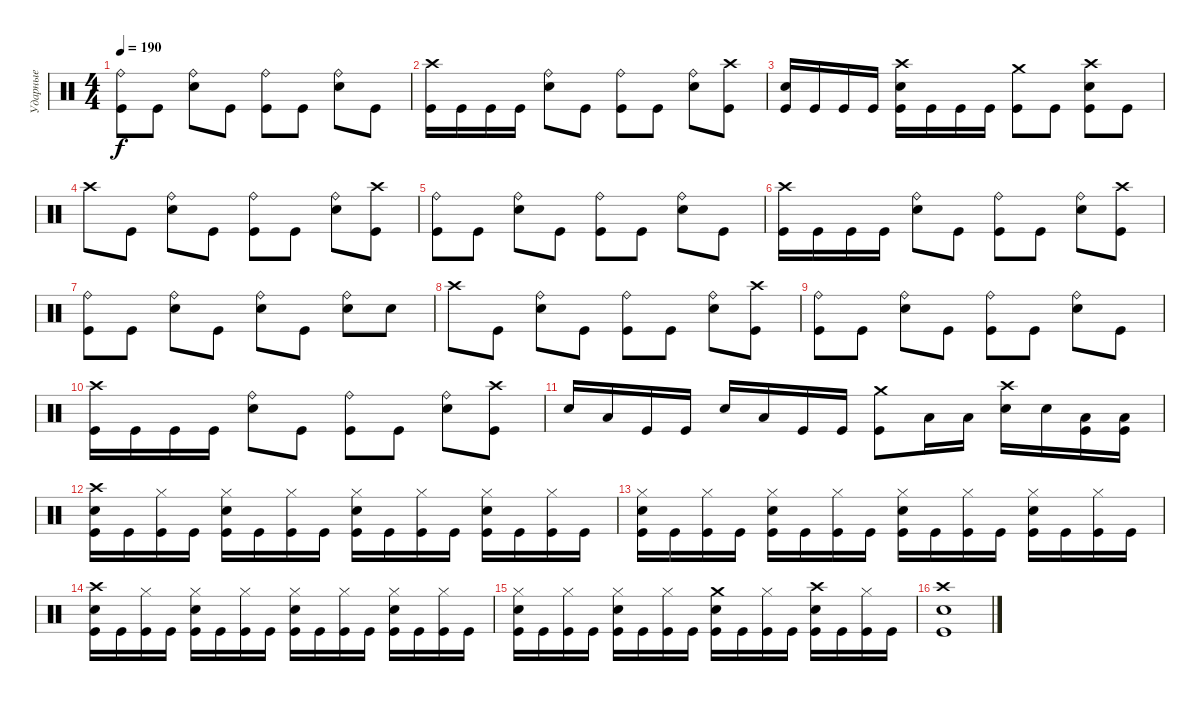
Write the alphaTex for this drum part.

\track ("Ударные" "Ударные") {instrument percussion}
\staff {score}
\articulation defaults
\ts (4 4)
\tempo 190
\clef neutral
\ks c
("Ride (bell)" "Kick (hit)").8{dy f} "Kick (hit)".8 ("Ride (bell)" "Electric Snare (hit)").8 "Kick (hit)".8 ("Ride (bell)" "Kick (hit)").8 "Kick (hit)".8 ("Ride (bell)" "Electric Snare (hit)").8 "Kick (hit)".8 |
("Crash high (hit)" "Kick (hit)").16 "Kick (hit)".16 "Kick (hit)".16 "Kick (hit)".16 ("Ride (bell)" "Electric Snare (hit)").8 "Kick (hit)".8 ("Ride (bell)" "Kick (hit)").8 "Kick (hit)".8 ("Ride (bell)" "Electric Snare (hit)").8 ("Crash high (hit)" "Kick (hit)").8 |
("Electric Snare (hit)" "Kick (hit)").16 "Kick (hit)".16 "Kick (hit)".16 "Kick (hit)".16 ("Crash high (hit)" "Electric Snare (hit)" "Kick (hit)").16 "Kick (hit)".16 "Kick (hit)".16 "Kick (hit)".16 ("Crash medium (hit)" "Kick (hit)").8 "Kick (hit)".8 ("Crash high (hit)" "Electric Snare (hit)" "Kick (hit)").8 "Kick (hit)".8 |
"Crash high (hit)".8 "Kick (hit)".8 ("Ride (bell)" "Electric Snare (hit)").8 "Kick (hit)".8 ("Ride (bell)" "Kick (hit)").8 "Kick (hit)".8 ("Ride (bell)" "Electric Snare (hit)").8 ("Crash high (hit)" "Kick (hit)").8 |
("Ride (bell)" "Kick (hit)").8 "Kick (hit)".8 ("Ride (bell)" "Electric Snare (hit)").8 "Kick (hit)".8 ("Ride (bell)" "Kick (hit)").8 "Kick (hit)".8 ("Ride (bell)" "Electric Snare (hit)").8 "Kick (hit)".8 |
("Crash high (hit)" "Kick (hit)").16 "Kick (hit)".16 "Kick (hit)".16 "Kick (hit)".16 ("Ride (bell)" "Electric Snare (hit)").8 "Kick (hit)".8 ("Ride (bell)" "Kick (hit)").8 "Kick (hit)".8 ("Ride (bell)" "Electric Snare (hit)").8 ("Crash high (hit)" "Kick (hit)").8 |
("Ride (bell)" "Kick (hit)").8 "Kick (hit)".8 ("Ride (bell)" "Electric Snare (hit)").8 "Kick (hit)".8 ("Ride (bell)" "Electric Snare (hit)").8 "Kick (hit)".8 ("Ride (bell)" "Electric Snare (hit)").8 "Electric Snare (hit)".8 |
"Crash high (hit)".8 "Kick (hit)".8 ("Ride (bell)" "Electric Snare (hit)").8 "Kick (hit)".8 ("Ride (bell)" "Kick (hit)").8 "Kick (hit)".8 ("Ride (bell)" "Electric Snare (hit)").8 ("Crash high (hit)" "Kick (hit)").8 |
("Ride (bell)" "Kick (hit)").8 "Kick (hit)".8 ("Ride (bell)" "Electric Snare (hit)").8 "Kick (hit)".8 ("Ride (bell)" "Kick (hit)").8 "Kick (hit)".8 ("Ride (bell)" "Electric Snare (hit)").8 "Kick (hit)".8 |
("Crash high (hit)" "Kick (hit)").16 "Kick (hit)".16 "Kick (hit)".16 "Kick (hit)".16 ("Ride (bell)" "Electric Snare (hit)").8 "Kick (hit)".8 ("Ride (bell)" "Kick (hit)").8 "Kick (hit)".8 ("Ride (bell)" "Electric Snare (hit)").8 ("Crash high (hit)" "Kick (hit)").8 |
"Electric Snare (hit)".16 "Low Tom (hit)".16 "Kick (hit)".16 "Kick (hit)".16 "Electric Snare (hit)".16 "Low Tom (hit)".16 "Kick (hit)".16 "Kick (hit)".16 ("Crash medium (hit)" "Kick (hit)").8 "Low Tom (hit)".16 "Low Tom (hit)".16 ("Crash high (hit)" "Electric Snare (hit)").16 "Electric Snare (hit)".16 ("Low Tom (hit)" "Kick (hit)").16 ("Low Tom (hit)" "Kick (hit)").16 |
("Crash high (hit)" "Electric Snare (hit)" "Kick (hit)").16 "Kick (hit)".16 ("Hi-Hat (closed)" "Kick (hit)").16 "Kick (hit)".16 ("Hi-Hat (closed)" "Electric Snare (hit)" "Kick (hit)").16 "Kick (hit)".16 ("Hi-Hat (closed)" "Kick (hit)").16 "Kick (hit)".16 ("Hi-Hat (closed)" "Electric Snare (hit)" "Kick (hit)").16 "Kick (hit)".16 ("Hi-Hat (closed)" "Kick (hit)").16 "Kick (hit)".16 ("Hi-Hat (closed)" "Electric Snare (hit)" "Kick (hit)").16 "Kick (hit)".16 ("Hi-Hat (closed)" "Kick (hit)").16 "Kick (hit)".16 |
("Hi-Hat (closed)" "Electric Snare (hit)" "Kick (hit)").16 "Kick (hit)".16 ("Hi-Hat (closed)" "Kick (hit)").16 "Kick (hit)".16 ("Hi-Hat (closed)" "Electric Snare (hit)" "Kick (hit)").16 "Kick (hit)".16 ("Hi-Hat (closed)" "Kick (hit)").16 "Kick (hit)".16 ("Hi-Hat (closed)" "Electric Snare (hit)" "Kick (hit)").16 "Kick (hit)".16 ("Hi-Hat (closed)" "Kick (hit)").16 "Kick (hit)".16 ("Hi-Hat (closed)" "Electric Snare (hit)" "Kick (hit)").16 "Kick (hit)".16 ("Hi-Hat (closed)" "Kick (hit)").16 "Kick (hit)".16 |
("Crash high (hit)" "Electric Snare (hit)" "Kick (hit)").16 "Kick (hit)".16 ("Hi-Hat (closed)" "Kick (hit)").16 "Kick (hit)".16 ("Hi-Hat (closed)" "Electric Snare (hit)" "Kick (hit)").16 "Kick (hit)".16 ("Hi-Hat (closed)" "Kick (hit)").16 "Kick (hit)".16 ("Hi-Hat (closed)" "Electric Snare (hit)" "Kick (hit)").16 "Kick (hit)".16 ("Hi-Hat (closed)" "Kick (hit)").16 "Kick (hit)".16 ("Hi-Hat (closed)" "Electric Snare (hit)" "Kick (hit)").16 "Kick (hit)".16 ("Hi-Hat (closed)" "Kick (hit)").16 "Kick (hit)".16 |
("Hi-Hat (closed)" "Electric Snare (hit)" "Kick (hit)").16 "Kick (hit)".16 ("Hi-Hat (closed)" "Kick (hit)").16 "Kick (hit)".16 ("Hi-Hat (closed)" "Electric Snare (hit)" "Kick (hit)").16 "Kick (hit)".16 ("Hi-Hat (closed)" "Kick (hit)").16 "Kick (hit)".16 ("Crash medium (hit)" "Electric Snare (hit)" "Kick (hit)").16 "Kick (hit)".16 ("Hi-Hat (closed)" "Kick (hit)").16 "Kick (hit)".16 ("Crash high (hit)" "Electric Snare (hit)" "Kick (hit)").16 "Kick (hit)".16 ("Hi-Hat (closed)" "Kick (hit)").16 "Kick (hit)".16 |
("Crash high (hit)" "Electric Snare (hit)" "Kick (hit)").1
